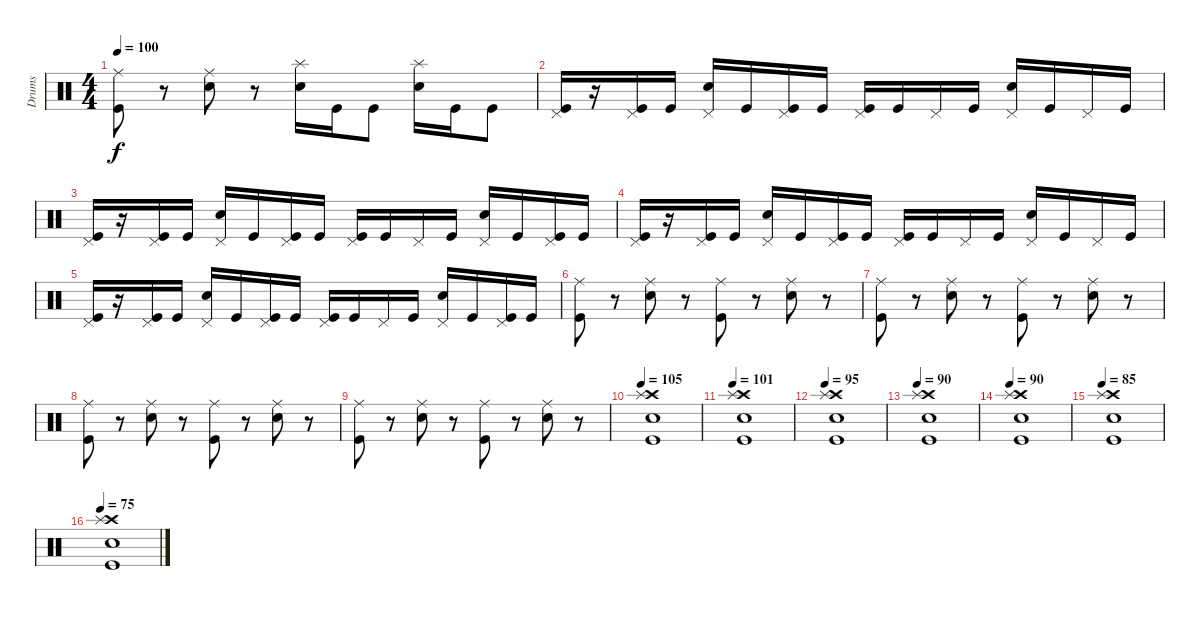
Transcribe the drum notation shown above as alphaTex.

\track ("Drums" "Drums") {instrument percussion}
\staff {score}
\articulation defaults
\ts (4 4)
\tempo 100
\clef neutral
\ks c
("Kick (hit)" "Ride (middle)").8{dy f} r.8 ("Snare (hit) 2" "Ride (middle)").8 r.8 ("Snare (hit) 2" "Splash (hit)").16 "Kick (hit)".16 "Kick (hit)".8 ("Snare (hit) 2" "Splash (hit)").16 "Kick (hit)".16 "Kick (hit)".8 |
("Kick (hit)" "Pedal Hi-Hat (hit)").16 r.16 ("Kick (hit)" "Pedal Hi-Hat (hit)").16 "Kick (hit)".16 ("Snare (hit) 2" "Pedal Hi-Hat (hit)").16 "Kick (hit)".16 ("Kick (hit)" "Pedal Hi-Hat (hit)").16 "Kick (hit)".16 ("Kick (hit)" "Pedal Hi-Hat (hit)").16 "Kick (hit)".16 "Pedal Hi-Hat (hit)".16 "Kick (hit)".16 ("Snare (hit) 2" "Pedal Hi-Hat (hit)").16 "Kick (hit)".16 "Pedal Hi-Hat (hit)".16 "Kick (hit)".16 |
("Kick (hit)" "Pedal Hi-Hat (hit)").16 r.16 ("Kick (hit)" "Pedal Hi-Hat (hit)").16 "Kick (hit)".16 ("Snare (hit) 2" "Pedal Hi-Hat (hit)").16 "Kick (hit)".16 ("Kick (hit)" "Pedal Hi-Hat (hit)").16 "Kick (hit)".16 ("Kick (hit)" "Pedal Hi-Hat (hit)").16 "Kick (hit)".16 "Pedal Hi-Hat (hit)".16 "Kick (hit)".16 ("Snare (hit) 2" "Pedal Hi-Hat (hit)").16 "Kick (hit)".16 ("Kick (hit)" "Pedal Hi-Hat (hit)").16 "Kick (hit)".16 |
("Kick (hit)" "Pedal Hi-Hat (hit)").16 r.16 ("Kick (hit)" "Pedal Hi-Hat (hit)").16 "Kick (hit)".16 ("Snare (hit) 2" "Pedal Hi-Hat (hit)").16 "Kick (hit)".16 ("Kick (hit)" "Pedal Hi-Hat (hit)").16 "Kick (hit)".16 ("Kick (hit)" "Pedal Hi-Hat (hit)").16 "Kick (hit)".16 "Pedal Hi-Hat (hit)".16 "Kick (hit)".16 ("Snare (hit) 2" "Pedal Hi-Hat (hit)").16 "Kick (hit)".16 "Pedal Hi-Hat (hit)".16 "Kick (hit)".16 |
("Kick (hit)" "Pedal Hi-Hat (hit)").16 r.16 ("Kick (hit)" "Pedal Hi-Hat (hit)").16 "Kick (hit)".16 ("Snare (hit) 2" "Pedal Hi-Hat (hit)").16 "Kick (hit)".16 ("Kick (hit)" "Pedal Hi-Hat (hit)").16 "Kick (hit)".16 ("Kick (hit)" "Pedal Hi-Hat (hit)").16 "Kick (hit)".16 "Pedal Hi-Hat (hit)".16 "Kick (hit)".16 ("Snare (hit) 2" "Pedal Hi-Hat (hit)").16 "Kick (hit)".16 ("Kick (hit)" "Pedal Hi-Hat (hit)").16 "Kick (hit)".16 |
("Kick (hit)" "Ride (middle)").8 r.8 ("Snare (hit) 2" "Ride (middle)").8 r.8 ("Kick (hit)" "Ride (middle)").8 r.8 ("Snare (hit) 2" "Ride (middle)").8 r.8 |
("Kick (hit)" "Ride (middle)").8 r.8 ("Snare (hit) 2" "Ride (middle)").8 r.8 ("Kick (hit)" "Ride (middle)").8 r.8 ("Snare (hit) 2" "Ride (middle)").8 r.8 |
("Kick (hit)" "Ride (middle)").8 r.8 ("Snare (hit) 2" "Ride (middle)").8 r.8 ("Kick (hit)" "Ride (middle)").8 r.8 ("Snare (hit) 2" "Ride (middle)").8 r.8 |
("Kick (hit)" "Ride (middle)").8 r.8 ("Snare (hit) 2" "Ride (middle)").8 r.8 ("Kick (hit)" "Ride (middle)").8 r.8 ("Snare (hit) 2" "Ride (middle)").8 r.8 |
\tempo 105
("Crash high (hit)" "Splash (hit)" "Snare (hit) 2" "Kick (hit)").1 |
\tempo 101
("Crash high (hit)" "Splash (hit)" "Snare (hit) 2" "Kick (hit)").1 |
\tempo 95
("Crash high (hit)" "Splash (hit)" "Snare (hit) 2" "Kick (hit)").1 |
\tempo 90
("Crash high (hit)" "Splash (hit)" "Snare (hit) 2" "Kick (hit)").1 |
\tempo 90
("Crash high (hit)" "Splash (hit)" "Snare (hit) 2" "Kick (hit)").1 |
\tempo 85
("Crash high (hit)" "Splash (hit)" "Snare (hit) 2" "Kick (hit)").1 |
\tempo 75
("Crash high (hit)" "Splash (hit)" "Snare (hit) 2" "Kick (hit)").1
